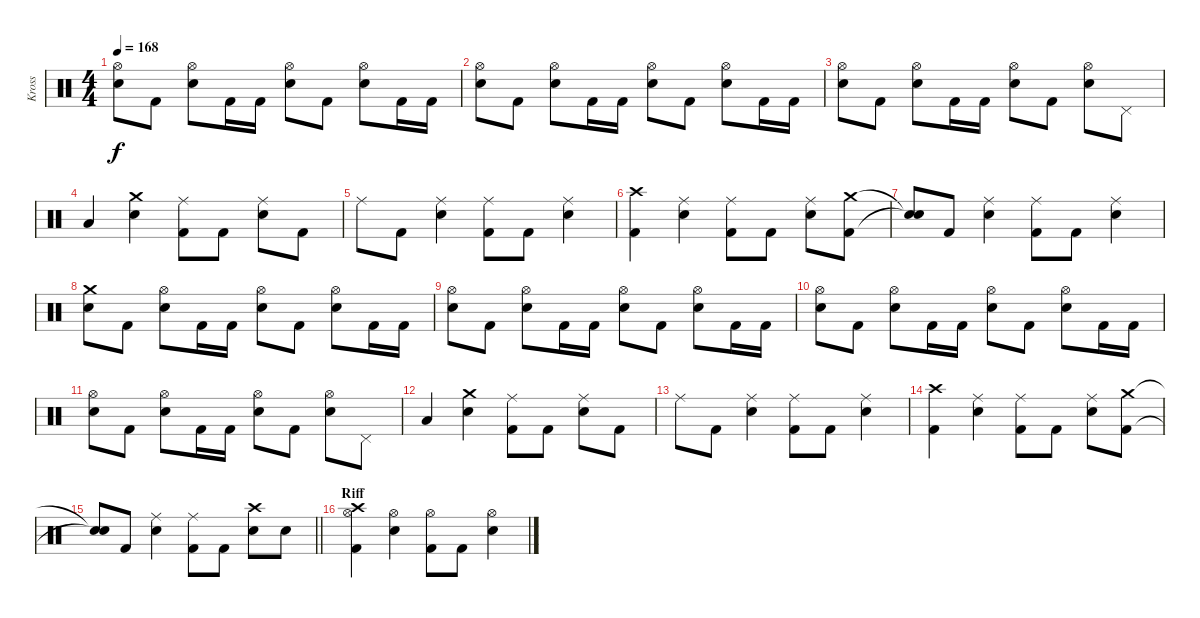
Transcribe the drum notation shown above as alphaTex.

\track ("Kross" "Kross") {instrument percussion}
\staff
\articulation defaults
\ts (4 4)
\tempo 168
\clef neutral
\ks c
("Hi-Hat (open)" "Electric Snare (hit)").8{dy f} "Kick (hit) 2".8 ("Hi-Hat (open)" "Electric Snare (hit)").8 "Kick (hit) 2".16 "Kick (hit) 2".16 ("Hi-Hat (open)" "Electric Snare (hit)").8 "Kick (hit) 2".8 ("Hi-Hat (open)" "Electric Snare (hit)").8 "Kick (hit) 2".16 "Kick (hit) 2".16 |
("Hi-Hat (open)" "Electric Snare (hit)").8 "Kick (hit) 2".8 ("Hi-Hat (open)" "Electric Snare (hit)").8 "Kick (hit) 2".16 "Kick (hit) 2".16 ("Hi-Hat (open)" "Electric Snare (hit)").8 "Kick (hit) 2".8 ("Hi-Hat (open)" "Electric Snare (hit)").8 "Kick (hit) 2".16 "Kick (hit) 2".16 |
("Hi-Hat (open)" "Electric Snare (hit)").8 "Kick (hit) 2".8 ("Hi-Hat (open)" "Electric Snare (hit)").8 "Kick (hit) 2".16 "Kick (hit) 2".16 ("Hi-Hat (open)" "Electric Snare (hit)").8 "Kick (hit) 2".8 ("Hi-Hat (open)" "Electric Snare (hit)").8 "Pedal Hi-Hat (hit)".8 |
"Low Tom (hit)".4 ("Crash medium (hit)" "Electric Snare (hit)").4 ("Ride (middle)" "Kick (hit) 2").8 "Kick (hit) 2".8 ("Ride (middle)" "Electric Snare (hit)").8 "Kick (hit) 2".8 |
"Ride (middle)".8 "Kick (hit) 2".8 ("Ride (middle)" "Electric Snare (hit)").4 ("Ride (middle)" "Kick (hit) 2").8 "Kick (hit) 2".8 ("Ride (middle)" "Electric Snare (hit)").4 |
("Crash high (hit)" "Kick (hit) 2").4 ("Ride (middle)" "Electric Snare (hit)").4 ("Ride (middle)" "Kick (hit) 2").8 "Kick (hit) 2".8 ("Ride (middle)" "Electric Snare (hit)").8 ("Crash medium (hit)" "Kick (hit) 2").8 |
("Snare (hit)"{t} "Snare (hit)"{t}).8 "Kick (hit) 2".8 ("Ride (middle)" "Electric Snare (hit)").4 ("Ride (middle)" "Kick (hit) 2").8 "Kick (hit) 2".8 ("Ride (middle)" "Electric Snare (hit)").4 |
("Crash medium (hit)" "Electric Snare (hit)").8 "Kick (hit) 2".8 ("Hi-Hat (open)" "Electric Snare (hit)").8 "Kick (hit) 2".16 "Kick (hit) 2".16 ("Hi-Hat (open)" "Electric Snare (hit)").8 "Kick (hit) 2".8 ("Hi-Hat (open)" "Electric Snare (hit)").8 "Kick (hit) 2".16 "Kick (hit) 2".16 |
("Hi-Hat (open)" "Electric Snare (hit)").8 "Kick (hit) 2".8 ("Hi-Hat (open)" "Electric Snare (hit)").8 "Kick (hit) 2".16 "Kick (hit) 2".16 ("Hi-Hat (open)" "Electric Snare (hit)").8 "Kick (hit) 2".8 ("Hi-Hat (open)" "Electric Snare (hit)").8 "Kick (hit) 2".16 "Kick (hit) 2".16 |
("Hi-Hat (open)" "Electric Snare (hit)").8 "Kick (hit) 2".8 ("Hi-Hat (open)" "Electric Snare (hit)").8 "Kick (hit) 2".16 "Kick (hit) 2".16 ("Hi-Hat (open)" "Electric Snare (hit)").8 "Kick (hit) 2".8 ("Hi-Hat (open)" "Electric Snare (hit)").8 "Kick (hit) 2".16 "Kick (hit) 2".16 |
("Hi-Hat (open)" "Electric Snare (hit)").8 "Kick (hit) 2".8 ("Hi-Hat (open)" "Electric Snare (hit)").8 "Kick (hit) 2".16 "Kick (hit) 2".16 ("Hi-Hat (open)" "Electric Snare (hit)").8 "Kick (hit) 2".8 ("Hi-Hat (open)" "Electric Snare (hit)").8 "Pedal Hi-Hat (hit)".8 |
"Low Tom (hit)".4 ("Crash medium (hit)" "Electric Snare (hit)").4 ("Ride (middle)" "Kick (hit) 2").8 "Kick (hit) 2".8 ("Ride (middle)" "Electric Snare (hit)").8 "Kick (hit) 2".8 |
"Ride (middle)".8 "Kick (hit) 2".8 ("Ride (middle)" "Electric Snare (hit)").4 ("Ride (middle)" "Kick (hit) 2").8 "Kick (hit) 2".8 ("Ride (middle)" "Electric Snare (hit)").4 |
("Crash high (hit)" "Kick (hit) 2").4 ("Ride (middle)" "Electric Snare (hit)").4 ("Ride (middle)" "Kick (hit) 2").8 "Kick (hit) 2".8 ("Ride (middle)" "Electric Snare (hit)").8 ("Crash medium (hit)" "Kick (hit) 2").8 |
\barLineRight lightlight
("Snare (hit)"{t} "Snare (hit)"{t}).8 "Kick (hit) 2".8 ("Ride (middle)" "Electric Snare (hit)").4 ("Ride (middle)" "Kick (hit) 2").8 "Kick (hit) 2".8 ("Crash high (hit)" "Electric Snare (hit)").8 "Electric Snare (hit)".8 |
\section ("" "Riff")
("Crash high (hit)" "Hi-Hat (open)" "Kick (hit) 2").4 ("Hi-Hat (open)" "Electric Snare (hit)").4 ("Hi-Hat (open)" "Kick (hit) 2").8 "Kick (hit) 2".8 ("Hi-Hat (open)" "Electric Snare (hit)").4
